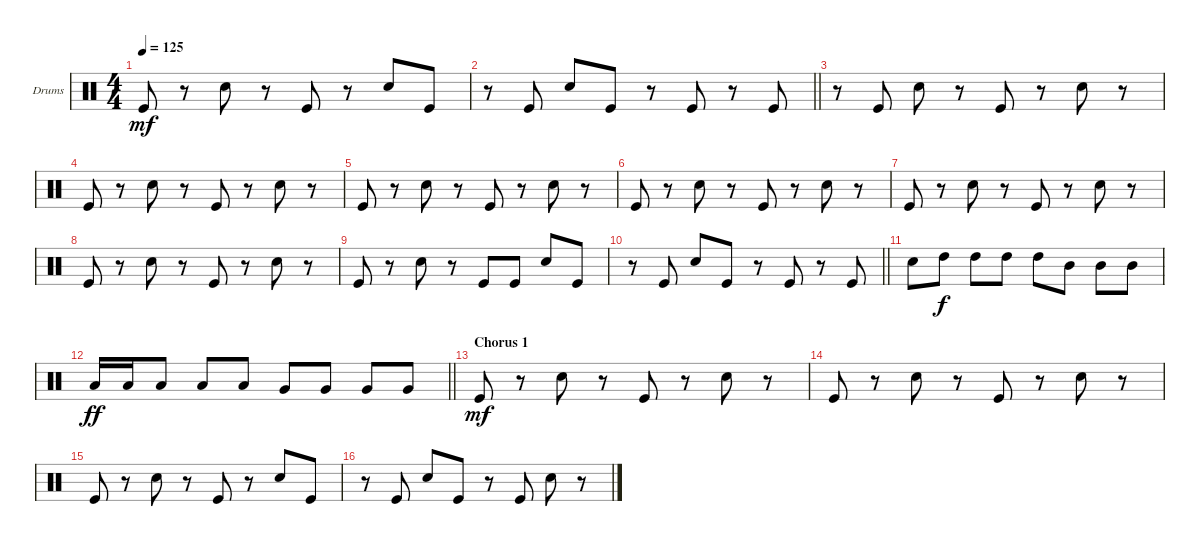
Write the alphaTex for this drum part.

\bracketExtendMode groupsimilarinstruments
\firstSystemTrackNameOrientation horizontal
\otherSystemsTrackNameOrientation horizontal
\track ("Nick Menza" "Drums") {instrument percussion}
\staff {score}
\articulation defaults
\ts (4 4)
\tempo 125
\clef neutral
\ks c "Kick (hit)".8{dy mf}
r.8 "Snare (hit) 2".8 r.8 "Kick (hit)".8 r.8 "Snare (hit) 2".8 "Kick (hit)".8 |
\barLineRight lightlight
r.8 "Kick (hit)".8 "Snare (hit) 2".8 "Kick (hit)".8 r.8 "Kick (hit)".8 r.8 "Kick (hit)".8 |
r.8 "Kick (hit)".8 "Snare (hit) 2".8 r.8 "Kick (hit)".8 r.8 "Snare (hit) 2".8 r.8 |
"Kick (hit)".8 r.8 "Snare (hit) 2".8 r.8 "Kick (hit)".8 r.8 "Snare (hit) 2".8 r.8 |
"Kick (hit)".8 r.8 "Snare (hit) 2".8 r.8 "Kick (hit)".8 r.8 "Snare (hit) 2".8 r.8 |
"Kick (hit)".8 r.8 "Snare (hit) 2".8 r.8 "Kick (hit)".8 r.8 "Snare (hit) 2".8 r.8 |
"Kick (hit)".8 r.8 "Snare (hit) 2".8 r.8 "Kick (hit)".8 r.8 "Snare (hit) 2".8 r.8 |
"Kick (hit)".8 r.8 "Snare (hit) 2".8 r.8 "Kick (hit)".8 r.8 "Snare (hit) 2".8 r.8 |
"Kick (hit)".8 r.8 "Snare (hit) 2".8 r.8 "Kick (hit)".8 "Kick (hit)".8 "Snare (hit) 2".8 "Kick (hit)".8 |
\barLineRight lightlight
r.8 "Kick (hit)".8 "Snare (hit) 2".8 "Kick (hit)".8 r.8 "Kick (hit)".8 r.8 "Kick (hit)".8 |
"Snare (hit) 2".8 "High Tom (hit)".8{dy f} "High Tom (hit)".8 "High Tom (hit)".8 "High Tom (hit)".8 "Mid Tom (hit)".8 "Mid Tom (hit)".8 "Mid Tom (hit)".8 |
\barLineRight lightlight "Low Tom (hit)".16{dy ff} "Low Tom (hit)".16 "Low Tom (hit)".8 "Low Tom (hit)".8 "Low Tom (hit)".8 "Very Low Tom (hit)".8 "Very Low Tom (hit)".8 "Very Low Tom (hit)".8 "Very Low Tom (hit)".8
|
\section ("" "Chorus 1")
"Kick (hit)".8{dy mf} r.8 "Snare (hit) 2".8 r.8 "Kick (hit)".8 r.8 "Snare (hit) 2".8 r.8 |
"Kick (hit)".8 r.8 "Snare (hit) 2".8 r.8 "Kick (hit)".8 r.8 "Snare (hit) 2".8 r.8 |
"Kick (hit)".8 r.8 "Snare (hit) 2".8 r.8 "Kick (hit)".8 r.8 "Snare (hit) 2".8 "Kick (hit)".8 |
r.8 "Kick (hit)".8 "Snare (hit) 2".8 "Kick (hit)".8 r.8 "Kick (hit)".8 "Snare (hit) 2".8 r.8
